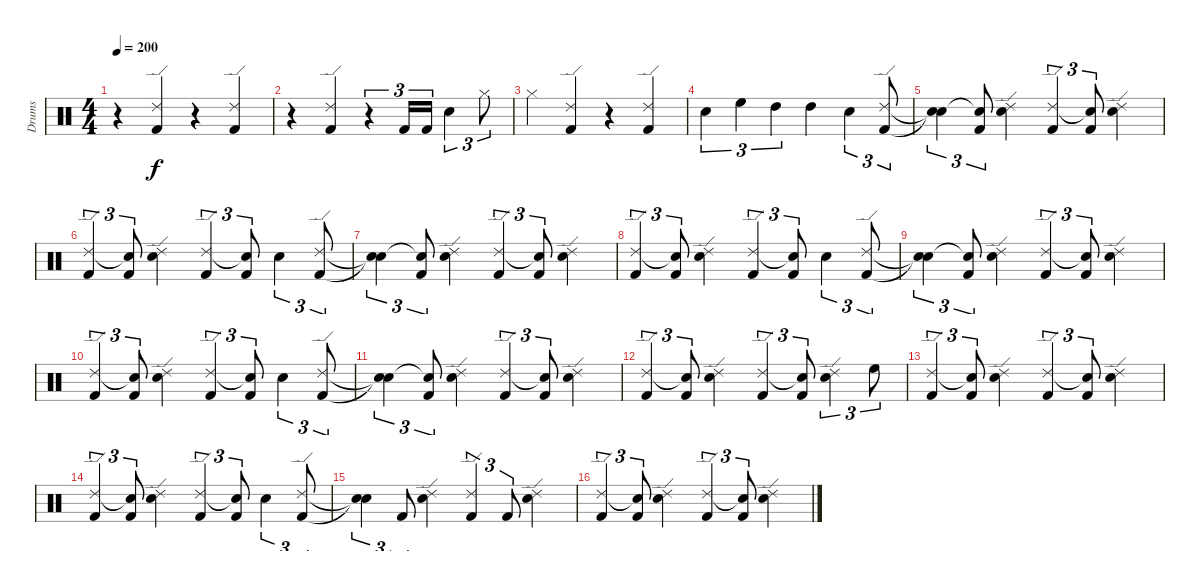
\track ("Drums" "Drums") {instrument percussion}
\staff {score}
\articulation defaults
\ts (4 4)
\tempo 200
\clef neutral
\ks c
r.4{dy f} ("Ride (edge) 2" "Kick (hit) 2").4 r.4 ("Ride (edge) 2" "Kick (hit) 2").4 |
r.4 ("Ride (edge) 2" "Kick (hit) 2").4 r.4{tu (3 2)} "Kick (hit) 2".16{tu (3 2)} "Kick (hit) 2".16{tu (3 2)} "Snare (hit) 2".4{tu (3 2)} "Hi-Hat (closed)".8{tu (3 2)} |
"Hi-Hat (closed)".4 ("Ride (edge) 2" "Kick (hit) 2").4 r.4 ("Ride (edge) 2" "Kick (hit) 2").4 |
"Snare (hit) 2".4{tu (3 2)} "High Floor Tom (hit)".4{tu (3 2)} "High Tom (hit)".4{tu (3 2)} "High Tom (hit)".4 "Snare (hit) 2".4{tu (3 2)} ("Ride (edge) 2" "Kick (hit) 2").8{tu (3 2)} |
("Snare (hit)"{t} "Snare (hit)"{t}).4{tu (3 2)} ("Snare (hit)"{t} "Kick (hit) 2").8{tu (3 2)} ("Ride (edge) 2" "Snare (hit) 2").4 ("Ride (edge) 2" "Kick (hit) 2").4{tu (3 2)} ("Snare (hit)"{t} "Kick (hit) 2").8{tu (3 2)} ("Ride (edge) 2" "Snare (hit) 2").4 |
("Ride (edge) 2" "Kick (hit) 2").4{tu (3 2)} ("Snare (hit)"{t} "Kick (hit) 2").8{tu (3 2)} ("Ride (edge) 2" "Snare (hit) 2").4 ("Ride (edge) 2" "Kick (hit) 2").4{tu (3 2)} ("Snare (hit)"{t} "Kick (hit) 2").8{tu (3 2)} "Snare (hit) 2".4{tu (3 2)} ("Ride (edge) 2" "Kick (hit) 2").8{tu (3 2)} |
("Snare (hit)"{t} "Snare (hit)"{t}).4{tu (3 2)} ("Snare (hit)"{t} "Kick (hit) 2").8{tu (3 2)} ("Ride (edge) 2" "Snare (hit) 2").4 ("Ride (edge) 2" "Kick (hit) 2").4{tu (3 2)} ("Snare (hit)"{t} "Kick (hit) 2").8{tu (3 2)} ("Ride (edge) 2" "Snare (hit) 2").4 |
("Ride (edge) 2" "Kick (hit) 2").4{tu (3 2)} ("Snare (hit)"{t} "Kick (hit) 2").8{tu (3 2)} ("Ride (edge) 2" "Snare (hit) 2").4 ("Ride (edge) 2" "Kick (hit) 2").4{tu (3 2)} ("Snare (hit)"{t} "Kick (hit) 2").8{tu (3 2)} "Snare (hit) 2".4{tu (3 2)} ("Ride (edge) 2" "Kick (hit) 2").8{tu (3 2)} |
("Snare (hit)"{t} "Snare (hit)"{t}).4{tu (3 2)} ("Snare (hit)"{t} "Kick (hit) 2").8{tu (3 2)} ("Ride (edge) 2" "Snare (hit) 2").4 ("Ride (edge) 2" "Kick (hit) 2").4{tu (3 2)} ("Snare (hit)"{t} "Kick (hit) 2").8{tu (3 2)} ("Ride (edge) 2" "Snare (hit) 2").4 |
("Ride (edge) 2" "Kick (hit) 2").4{tu (3 2)} ("Snare (hit)"{t} "Kick (hit) 2").8{tu (3 2)} ("Ride (edge) 2" "Snare (hit) 2").4 ("Ride (edge) 2" "Kick (hit) 2").4{tu (3 2)} ("Snare (hit)"{t} "Kick (hit) 2").8{tu (3 2)} "Snare (hit) 2".4{tu (3 2)} ("Ride (edge) 2" "Kick (hit) 2").8{tu (3 2)} |
("Snare (hit)"{t} "Snare (hit)"{t}).4{tu (3 2)} ("Snare (hit)"{t} "Kick (hit) 2").8{tu (3 2)} ("Ride (edge) 2" "Snare (hit) 2").4 ("Ride (edge) 2" "Kick (hit) 2").4{tu (3 2)} ("Snare (hit)"{t} "Kick (hit) 2").8{tu (3 2)} ("Ride (edge) 2" "Snare (hit) 2").4 |
("Ride (edge) 2" "Kick (hit) 2").4{tu (3 2)} ("Snare (hit)"{t} "Kick (hit) 2").8{tu (3 2)} ("Ride (edge) 2" "Snare (hit) 2").4 ("Ride (edge) 2" "Kick (hit) 2").4{tu (3 2)} ("Snare (hit)"{t} "Kick (hit) 2").8{tu (3 2)} ("Ride (edge) 2" "Snare (hit) 2").4{tu (3 2)} "High Floor Tom (hit)".8{tu (3 2)} |
("Ride (edge) 2" "Kick (hit) 2").4{tu (3 2)} ("Snare (hit)"{t} "Kick (hit) 2").8{tu (3 2)} ("Ride (edge) 2" "Snare (hit) 2").4 ("Ride (edge) 2" "Kick (hit) 2").4{tu (3 2)} ("Snare (hit)"{t} "Kick (hit) 2").8{tu (3 2)} ("Ride (edge) 2" "Snare (hit) 2").4 |
("Ride (edge) 2" "Kick (hit) 2").4{tu (3 2)} ("Snare (hit)"{t} "Kick (hit) 2").8{tu (3 2)} ("Ride (edge) 2" "Snare (hit) 2").4 ("Ride (edge) 2" "Kick (hit) 2").4{tu (3 2)} ("Snare (hit)"{t} "Kick (hit) 2").8{tu (3 2)} "Snare (hit) 2".4{tu (3 2)} ("Ride (edge) 2" "Kick (hit) 2").8{tu (3 2)} |
("Snare (hit)"{t} "Snare (hit)"{t}).4{tu (3 2)} "Kick (hit) 2".8{tu (3 2)} ("Ride (edge) 2" "Snare (hit) 2").4 ("Ride (edge) 2" "Kick (hit) 2").4{tu (3 2)} "Kick (hit) 2".8{tu (3 2)} ("Ride (edge) 2" "Snare (hit) 2").4 |
("Ride (edge) 2" "Kick (hit) 2").4{tu (3 2)} ("Snare (hit)"{t} "Kick (hit) 2").8{tu (3 2)} ("Ride (edge) 2" "Snare (hit) 2").4 ("Ride (edge) 2" "Kick (hit) 2").4{tu (3 2)} ("Snare (hit)"{t} "Kick (hit) 2").8{tu (3 2)} ("Ride (edge) 2" "Snare (hit) 2").4
